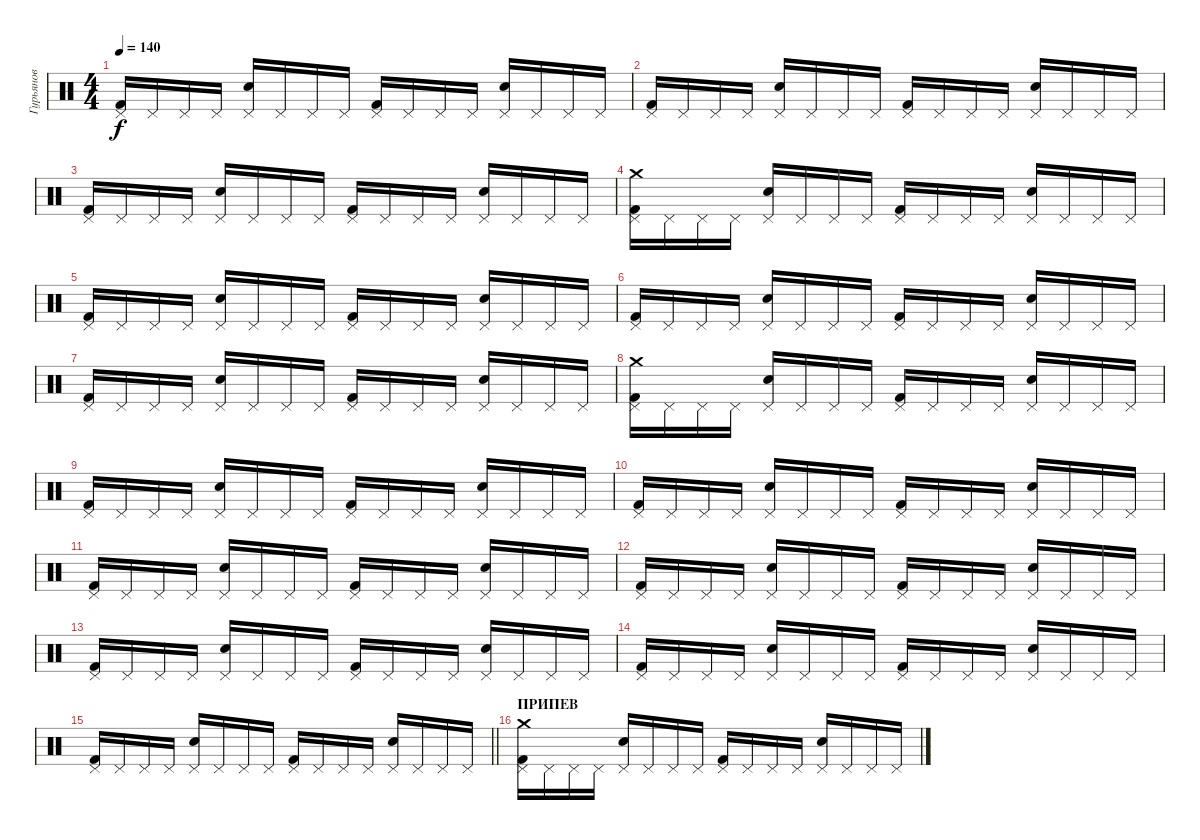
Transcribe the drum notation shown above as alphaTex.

\track ("Гурьянов" "Гурьянов") {instrument percussion}
\staff {score}
\articulation defaults
\ts (4 4)
\tempo 140
\clef neutral
\ks c
("Pedal Hi-Hat (hit)" "Kick (hit) 2").16{dy f} "Pedal Hi-Hat (hit)".16 "Pedal Hi-Hat (hit)".16 "Pedal Hi-Hat (hit)".16 ("Pedal Hi-Hat (hit)" "Electric Snare (hit)").16 "Pedal Hi-Hat (hit)".16 "Pedal Hi-Hat (hit)".16 "Pedal Hi-Hat (hit)".16 ("Pedal Hi-Hat (hit)" "Kick (hit) 2").16 "Pedal Hi-Hat (hit)".16 "Pedal Hi-Hat (hit)".16 "Pedal Hi-Hat (hit)".16 ("Pedal Hi-Hat (hit)" "Electric Snare (hit)").16 "Pedal Hi-Hat (hit)".16 "Pedal Hi-Hat (hit)".16 "Pedal Hi-Hat (hit)".16 |
("Pedal Hi-Hat (hit)" "Kick (hit) 2").16 "Pedal Hi-Hat (hit)".16 "Pedal Hi-Hat (hit)".16 "Pedal Hi-Hat (hit)".16 ("Pedal Hi-Hat (hit)" "Electric Snare (hit)").16 "Pedal Hi-Hat (hit)".16 "Pedal Hi-Hat (hit)".16 "Pedal Hi-Hat (hit)".16 ("Pedal Hi-Hat (hit)" "Kick (hit) 2").16 "Pedal Hi-Hat (hit)".16 "Pedal Hi-Hat (hit)".16 "Pedal Hi-Hat (hit)".16 ("Pedal Hi-Hat (hit)" "Electric Snare (hit)").16 "Pedal Hi-Hat (hit)".16 "Pedal Hi-Hat (hit)".16 "Pedal Hi-Hat (hit)".16 |
("Pedal Hi-Hat (hit)" "Kick (hit) 2").16 "Pedal Hi-Hat (hit)".16 "Pedal Hi-Hat (hit)".16 "Pedal Hi-Hat (hit)".16 ("Pedal Hi-Hat (hit)" "Electric Snare (hit)").16 "Pedal Hi-Hat (hit)".16 "Pedal Hi-Hat (hit)".16 "Pedal Hi-Hat (hit)".16 ("Pedal Hi-Hat (hit)" "Kick (hit) 2").16 "Pedal Hi-Hat (hit)".16 "Pedal Hi-Hat (hit)".16 "Pedal Hi-Hat (hit)".16 ("Pedal Hi-Hat (hit)" "Electric Snare (hit)").16 "Pedal Hi-Hat (hit)".16 "Pedal Hi-Hat (hit)".16 "Pedal Hi-Hat (hit)".16 |
("Pedal Hi-Hat (hit)" "Crash medium (hit)" "Kick (hit) 2").16 "Pedal Hi-Hat (hit)".16 "Pedal Hi-Hat (hit)".16 "Pedal Hi-Hat (hit)".16 ("Pedal Hi-Hat (hit)" "Electric Snare (hit)").16 "Pedal Hi-Hat (hit)".16 "Pedal Hi-Hat (hit)".16 "Pedal Hi-Hat (hit)".16 ("Pedal Hi-Hat (hit)" "Kick (hit) 2").16 "Pedal Hi-Hat (hit)".16 "Pedal Hi-Hat (hit)".16 "Pedal Hi-Hat (hit)".16 ("Pedal Hi-Hat (hit)" "Electric Snare (hit)").16 "Pedal Hi-Hat (hit)".16 "Pedal Hi-Hat (hit)".16 "Pedal Hi-Hat (hit)".16 |
("Pedal Hi-Hat (hit)" "Kick (hit) 2").16 "Pedal Hi-Hat (hit)".16 "Pedal Hi-Hat (hit)".16 "Pedal Hi-Hat (hit)".16 ("Pedal Hi-Hat (hit)" "Electric Snare (hit)").16 "Pedal Hi-Hat (hit)".16 "Pedal Hi-Hat (hit)".16 "Pedal Hi-Hat (hit)".16 ("Pedal Hi-Hat (hit)" "Kick (hit) 2").16 "Pedal Hi-Hat (hit)".16 "Pedal Hi-Hat (hit)".16 "Pedal Hi-Hat (hit)".16 ("Pedal Hi-Hat (hit)" "Electric Snare (hit)").16 "Pedal Hi-Hat (hit)".16 "Pedal Hi-Hat (hit)".16 "Pedal Hi-Hat (hit)".16 |
("Pedal Hi-Hat (hit)" "Kick (hit) 2").16 "Pedal Hi-Hat (hit)".16 "Pedal Hi-Hat (hit)".16 "Pedal Hi-Hat (hit)".16 ("Pedal Hi-Hat (hit)" "Electric Snare (hit)").16 "Pedal Hi-Hat (hit)".16 "Pedal Hi-Hat (hit)".16 "Pedal Hi-Hat (hit)".16 ("Pedal Hi-Hat (hit)" "Kick (hit) 2").16 "Pedal Hi-Hat (hit)".16 "Pedal Hi-Hat (hit)".16 "Pedal Hi-Hat (hit)".16 ("Pedal Hi-Hat (hit)" "Electric Snare (hit)").16 "Pedal Hi-Hat (hit)".16 "Pedal Hi-Hat (hit)".16 "Pedal Hi-Hat (hit)".16 |
("Pedal Hi-Hat (hit)" "Kick (hit) 2").16 "Pedal Hi-Hat (hit)".16 "Pedal Hi-Hat (hit)".16 "Pedal Hi-Hat (hit)".16 ("Pedal Hi-Hat (hit)" "Electric Snare (hit)").16 "Pedal Hi-Hat (hit)".16 "Pedal Hi-Hat (hit)".16 "Pedal Hi-Hat (hit)".16 ("Pedal Hi-Hat (hit)" "Kick (hit) 2").16 "Pedal Hi-Hat (hit)".16 "Pedal Hi-Hat (hit)".16 "Pedal Hi-Hat (hit)".16 ("Pedal Hi-Hat (hit)" "Electric Snare (hit)").16 "Pedal Hi-Hat (hit)".16 "Pedal Hi-Hat (hit)".16 "Pedal Hi-Hat (hit)".16 |
("Pedal Hi-Hat (hit)" "Crash medium (hit)" "Kick (hit) 2").16 "Pedal Hi-Hat (hit)".16 "Pedal Hi-Hat (hit)".16 "Pedal Hi-Hat (hit)".16 ("Pedal Hi-Hat (hit)" "Electric Snare (hit)").16 "Pedal Hi-Hat (hit)".16 "Pedal Hi-Hat (hit)".16 "Pedal Hi-Hat (hit)".16 ("Pedal Hi-Hat (hit)" "Kick (hit) 2").16 "Pedal Hi-Hat (hit)".16 "Pedal Hi-Hat (hit)".16 "Pedal Hi-Hat (hit)".16 ("Pedal Hi-Hat (hit)" "Electric Snare (hit)").16 "Pedal Hi-Hat (hit)".16 "Pedal Hi-Hat (hit)".16 "Pedal Hi-Hat (hit)".16 |
("Pedal Hi-Hat (hit)" "Kick (hit) 2").16 "Pedal Hi-Hat (hit)".16 "Pedal Hi-Hat (hit)".16 "Pedal Hi-Hat (hit)".16 ("Pedal Hi-Hat (hit)" "Electric Snare (hit)").16 "Pedal Hi-Hat (hit)".16 "Pedal Hi-Hat (hit)".16 "Pedal Hi-Hat (hit)".16 ("Pedal Hi-Hat (hit)" "Kick (hit) 2").16 "Pedal Hi-Hat (hit)".16 "Pedal Hi-Hat (hit)".16 "Pedal Hi-Hat (hit)".16 ("Pedal Hi-Hat (hit)" "Electric Snare (hit)").16 "Pedal Hi-Hat (hit)".16 "Pedal Hi-Hat (hit)".16 "Pedal Hi-Hat (hit)".16 |
("Pedal Hi-Hat (hit)" "Kick (hit) 2").16 "Pedal Hi-Hat (hit)".16 "Pedal Hi-Hat (hit)".16 "Pedal Hi-Hat (hit)".16 ("Pedal Hi-Hat (hit)" "Electric Snare (hit)").16 "Pedal Hi-Hat (hit)".16 "Pedal Hi-Hat (hit)".16 "Pedal Hi-Hat (hit)".16 ("Pedal Hi-Hat (hit)" "Kick (hit) 2").16 "Pedal Hi-Hat (hit)".16 "Pedal Hi-Hat (hit)".16 "Pedal Hi-Hat (hit)".16 ("Pedal Hi-Hat (hit)" "Electric Snare (hit)").16 "Pedal Hi-Hat (hit)".16 "Pedal Hi-Hat (hit)".16 "Pedal Hi-Hat (hit)".16 |
("Pedal Hi-Hat (hit)" "Kick (hit) 2").16 "Pedal Hi-Hat (hit)".16 "Pedal Hi-Hat (hit)".16 "Pedal Hi-Hat (hit)".16 ("Pedal Hi-Hat (hit)" "Electric Snare (hit)").16 "Pedal Hi-Hat (hit)".16 "Pedal Hi-Hat (hit)".16 "Pedal Hi-Hat (hit)".16 ("Pedal Hi-Hat (hit)" "Kick (hit) 2").16 "Pedal Hi-Hat (hit)".16 "Pedal Hi-Hat (hit)".16 "Pedal Hi-Hat (hit)".16 ("Pedal Hi-Hat (hit)" "Electric Snare (hit)").16 "Pedal Hi-Hat (hit)".16 "Pedal Hi-Hat (hit)".16 "Pedal Hi-Hat (hit)".16 |
("Pedal Hi-Hat (hit)" "Kick (hit) 2").16 "Pedal Hi-Hat (hit)".16 "Pedal Hi-Hat (hit)".16 "Pedal Hi-Hat (hit)".16 ("Pedal Hi-Hat (hit)" "Electric Snare (hit)").16 "Pedal Hi-Hat (hit)".16 "Pedal Hi-Hat (hit)".16 "Pedal Hi-Hat (hit)".16 ("Pedal Hi-Hat (hit)" "Kick (hit) 2").16 "Pedal Hi-Hat (hit)".16 "Pedal Hi-Hat (hit)".16 "Pedal Hi-Hat (hit)".16 ("Pedal Hi-Hat (hit)" "Electric Snare (hit)").16 "Pedal Hi-Hat (hit)".16 "Pedal Hi-Hat (hit)".16 "Pedal Hi-Hat (hit)".16 |
("Pedal Hi-Hat (hit)" "Kick (hit) 2").16 "Pedal Hi-Hat (hit)".16 "Pedal Hi-Hat (hit)".16 "Pedal Hi-Hat (hit)".16 ("Pedal Hi-Hat (hit)" "Electric Snare (hit)").16 "Pedal Hi-Hat (hit)".16 "Pedal Hi-Hat (hit)".16 "Pedal Hi-Hat (hit)".16 ("Pedal Hi-Hat (hit)" "Kick (hit) 2").16 "Pedal Hi-Hat (hit)".16 "Pedal Hi-Hat (hit)".16 "Pedal Hi-Hat (hit)".16 ("Pedal Hi-Hat (hit)" "Electric Snare (hit)").16 "Pedal Hi-Hat (hit)".16 "Pedal Hi-Hat (hit)".16 "Pedal Hi-Hat (hit)".16 |
("Pedal Hi-Hat (hit)" "Kick (hit) 2").16 "Pedal Hi-Hat (hit)".16 "Pedal Hi-Hat (hit)".16 "Pedal Hi-Hat (hit)".16 ("Pedal Hi-Hat (hit)" "Electric Snare (hit)").16 "Pedal Hi-Hat (hit)".16 "Pedal Hi-Hat (hit)".16 "Pedal Hi-Hat (hit)".16 ("Pedal Hi-Hat (hit)" "Kick (hit) 2").16 "Pedal Hi-Hat (hit)".16 "Pedal Hi-Hat (hit)".16 "Pedal Hi-Hat (hit)".16 ("Pedal Hi-Hat (hit)" "Electric Snare (hit)").16 "Pedal Hi-Hat (hit)".16 "Pedal Hi-Hat (hit)".16 "Pedal Hi-Hat (hit)".16 |
\barLineRight lightlight
("Pedal Hi-Hat (hit)" "Kick (hit) 2").16 "Pedal Hi-Hat (hit)".16 "Pedal Hi-Hat (hit)".16 "Pedal Hi-Hat (hit)".16 ("Pedal Hi-Hat (hit)" "Electric Snare (hit)").16 "Pedal Hi-Hat (hit)".16 "Pedal Hi-Hat (hit)".16 "Pedal Hi-Hat (hit)".16 ("Pedal Hi-Hat (hit)" "Kick (hit) 2").16 "Pedal Hi-Hat (hit)".16 "Pedal Hi-Hat (hit)".16 "Pedal Hi-Hat (hit)".16 ("Pedal Hi-Hat (hit)" "Electric Snare (hit)").16 "Pedal Hi-Hat (hit)".16 "Pedal Hi-Hat (hit)".16 "Pedal Hi-Hat (hit)".16 |
\section ("" "ПРИПЕВ")
("Pedal Hi-Hat (hit)" "Crash medium (hit)" "Kick (hit) 2").16 "Pedal Hi-Hat (hit)".16 "Pedal Hi-Hat (hit)".16 "Pedal Hi-Hat (hit)".16 ("Pedal Hi-Hat (hit)" "Electric Snare (hit)").16 "Pedal Hi-Hat (hit)".16 "Pedal Hi-Hat (hit)".16 "Pedal Hi-Hat (hit)".16 ("Pedal Hi-Hat (hit)" "Kick (hit) 2").16 "Pedal Hi-Hat (hit)".16 "Pedal Hi-Hat (hit)".16 "Pedal Hi-Hat (hit)".16 ("Pedal Hi-Hat (hit)" "Electric Snare (hit)").16 "Pedal Hi-Hat (hit)".16 "Pedal Hi-Hat (hit)".16 "Pedal Hi-Hat (hit)".16
